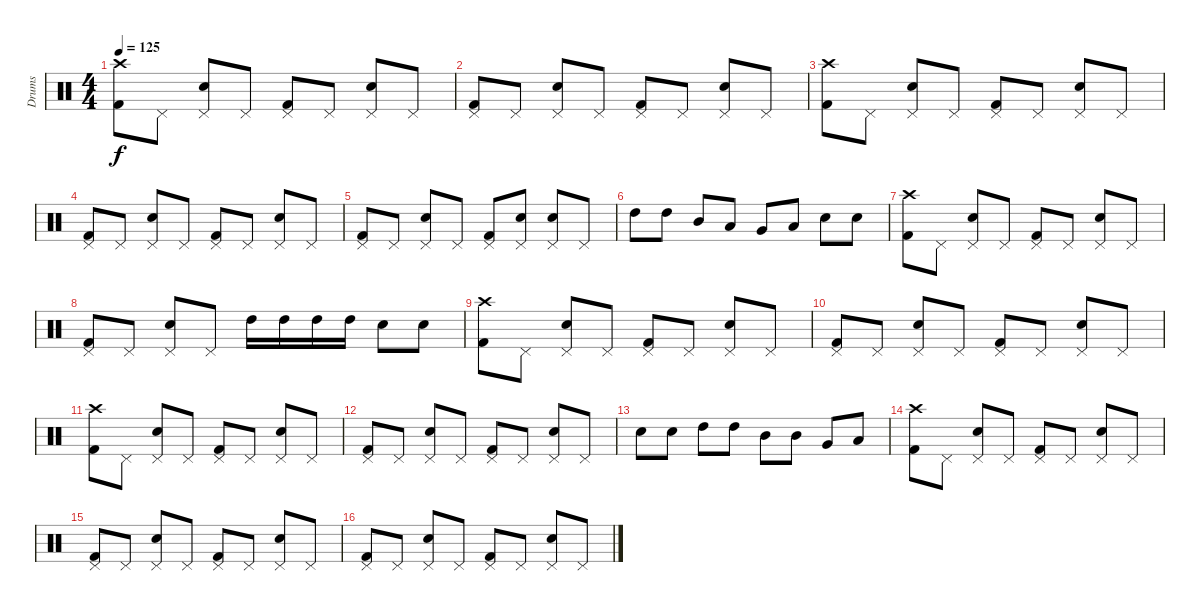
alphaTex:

\track ("Drums" "Drums") {instrument percussion}
\staff {score}
\articulation defaults
\ts (4 4)
\tempo 125
\clef neutral
\ks c
("Crash high (hit)" "Kick (hit) 2").8{dy f} "Pedal Hi-Hat (hit)".8 ("Pedal Hi-Hat (hit)" "Snare (hit) 2").8 "Pedal Hi-Hat (hit)".8 ("Pedal Hi-Hat (hit)" "Kick (hit) 2").8 "Pedal Hi-Hat (hit)".8 ("Pedal Hi-Hat (hit)" "Snare (hit) 2").8 "Pedal Hi-Hat (hit)".8 |
("Pedal Hi-Hat (hit)" "Kick (hit) 2").8 "Pedal Hi-Hat (hit)".8 ("Pedal Hi-Hat (hit)" "Snare (hit) 2").8 "Pedal Hi-Hat (hit)".8 ("Pedal Hi-Hat (hit)" "Kick (hit) 2").8 "Pedal Hi-Hat (hit)".8 ("Pedal Hi-Hat (hit)" "Snare (hit) 2").8 "Pedal Hi-Hat (hit)".8 |
("Crash high (hit)" "Kick (hit) 2").8 "Pedal Hi-Hat (hit)".8 ("Pedal Hi-Hat (hit)" "Snare (hit) 2").8 "Pedal Hi-Hat (hit)".8 ("Pedal Hi-Hat (hit)" "Kick (hit) 2").8 "Pedal Hi-Hat (hit)".8 ("Pedal Hi-Hat (hit)" "Snare (hit) 2").8 "Pedal Hi-Hat (hit)".8 |
("Pedal Hi-Hat (hit)" "Kick (hit) 2").8 "Pedal Hi-Hat (hit)".8 ("Pedal Hi-Hat (hit)" "Snare (hit) 2").8 "Pedal Hi-Hat (hit)".8 ("Pedal Hi-Hat (hit)" "Kick (hit) 2").8 "Pedal Hi-Hat (hit)".8 ("Pedal Hi-Hat (hit)" "Snare (hit) 2").8 "Pedal Hi-Hat (hit)".8 |
("Pedal Hi-Hat (hit)" "Kick (hit) 2").8 "Pedal Hi-Hat (hit)".8 ("Pedal Hi-Hat (hit)" "Snare (hit) 2").8 "Pedal Hi-Hat (hit)".8 ("Pedal Hi-Hat (hit)" "Kick (hit) 2").8 ("Pedal Hi-Hat (hit)" "Snare (hit) 2").8 ("Pedal Hi-Hat (hit)" "Snare (hit) 2").8 "Pedal Hi-Hat (hit)".8 |
"High Tom (hit)".8 "High Tom (hit)".8 "Mid Tom (hit)".8 "Low Tom (hit)".8 "Very Low Tom (hit)".8 "Low Floor Tom (hit)".8 "Snare (hit) 2".8 "Snare (hit) 2".8 |
("Crash high (hit)" "Kick (hit) 2").8 "Pedal Hi-Hat (hit)".8 ("Pedal Hi-Hat (hit)" "Snare (hit) 2").8 "Pedal Hi-Hat (hit)".8 ("Pedal Hi-Hat (hit)" "Kick (hit) 2").8 "Pedal Hi-Hat (hit)".8 ("Pedal Hi-Hat (hit)" "Snare (hit) 2").8 "Pedal Hi-Hat (hit)".8 |
("Pedal Hi-Hat (hit)" "Kick (hit) 2").8 "Pedal Hi-Hat (hit)".8 ("Pedal Hi-Hat (hit)" "Snare (hit) 2").8 "Pedal Hi-Hat (hit)".8 "High Tom (hit)".16 "High Tom (hit)".16 "High Tom (hit)".16 "High Tom (hit)".16 "Snare (hit) 2".8 "Snare (hit) 2".8 |
("Crash high (hit)" "Kick (hit) 2").8 "Pedal Hi-Hat (hit)".8 ("Pedal Hi-Hat (hit)" "Snare (hit) 2").8 "Pedal Hi-Hat (hit)".8 ("Pedal Hi-Hat (hit)" "Kick (hit) 2").8 "Pedal Hi-Hat (hit)".8 ("Pedal Hi-Hat (hit)" "Snare (hit) 2").8 "Pedal Hi-Hat (hit)".8 |
("Pedal Hi-Hat (hit)" "Kick (hit) 2").8 "Pedal Hi-Hat (hit)".8 ("Pedal Hi-Hat (hit)" "Snare (hit) 2").8 "Pedal Hi-Hat (hit)".8 ("Pedal Hi-Hat (hit)" "Kick (hit) 2").8 "Pedal Hi-Hat (hit)".8 ("Pedal Hi-Hat (hit)" "Snare (hit) 2").8 "Pedal Hi-Hat (hit)".8 |
("Crash high (hit)" "Kick (hit) 2").8 "Pedal Hi-Hat (hit)".8 ("Pedal Hi-Hat (hit)" "Snare (hit) 2").8 "Pedal Hi-Hat (hit)".8 ("Pedal Hi-Hat (hit)" "Kick (hit) 2").8 "Pedal Hi-Hat (hit)".8 ("Pedal Hi-Hat (hit)" "Snare (hit) 2").8 "Pedal Hi-Hat (hit)".8 |
("Pedal Hi-Hat (hit)" "Kick (hit) 2").8 "Pedal Hi-Hat (hit)".8 ("Pedal Hi-Hat (hit)" "Snare (hit) 2").8 "Pedal Hi-Hat (hit)".8 ("Pedal Hi-Hat (hit)" "Kick (hit) 2").8 "Pedal Hi-Hat (hit)".8 ("Pedal Hi-Hat (hit)" "Snare (hit) 2").8 "Pedal Hi-Hat (hit)".8 |
"Snare (hit) 2".8 "Snare (hit) 2".8 "High Tom (hit)".8 "High Tom (hit)".8 "Mid Tom (hit)".8 "Mid Tom (hit)".8 "Very Low Tom (hit)".8 "Low Floor Tom (hit)".8 |
("Crash high (hit)" "Kick (hit) 2").8 "Pedal Hi-Hat (hit)".8 ("Pedal Hi-Hat (hit)" "Snare (hit) 2").8 "Pedal Hi-Hat (hit)".8 ("Pedal Hi-Hat (hit)" "Kick (hit) 2").8 "Pedal Hi-Hat (hit)".8 ("Pedal Hi-Hat (hit)" "Snare (hit) 2").8 "Pedal Hi-Hat (hit)".8 |
("Pedal Hi-Hat (hit)" "Kick (hit) 2").8 "Pedal Hi-Hat (hit)".8 ("Pedal Hi-Hat (hit)" "Snare (hit) 2").8 "Pedal Hi-Hat (hit)".8 ("Pedal Hi-Hat (hit)" "Kick (hit) 2").8 "Pedal Hi-Hat (hit)".8 ("Pedal Hi-Hat (hit)" "Snare (hit) 2").8 "Pedal Hi-Hat (hit)".8 |
("Pedal Hi-Hat (hit)" "Kick (hit) 2").8 "Pedal Hi-Hat (hit)".8 ("Pedal Hi-Hat (hit)" "Snare (hit) 2").8 "Pedal Hi-Hat (hit)".8 ("Pedal Hi-Hat (hit)" "Kick (hit) 2").8 "Pedal Hi-Hat (hit)".8 ("Pedal Hi-Hat (hit)" "Snare (hit) 2").8 "Pedal Hi-Hat (hit)".8
